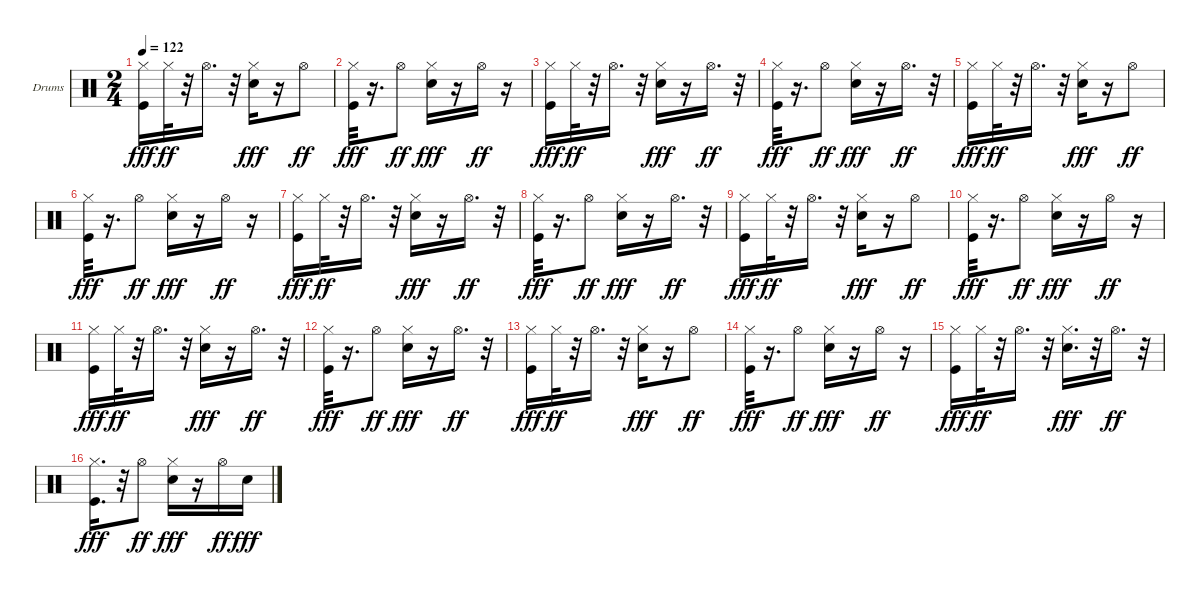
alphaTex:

\bracketExtendMode groupsimilarinstruments
\firstSystemTrackNameOrientation horizontal
\otherSystemsTrackNameOrientation horizontal
\track ("Ударные" "Drums") {instrument percussion}
\staff {score}
\articulation defaults
\ts (2 4)
\tempo 122
\clef neutral
\ks c
("Kick (hit)" "Hi-Hat (closed)").16{dy fff} "Hi-Hat (closed)".32{dy ff} r.32 "Hi-Hat (open)".16{d} r.32 ("Snare (hit) 2" "Hi-Hat (closed)").16{dy fff} r.16 "Hi-Hat (open)".8{dy ff} |
("Kick (hit)" "Hi-Hat (closed)").32{dy fff} r.16{d} "Hi-Hat (open)".8{dy ff} ("Snare (hit) 2" "Hi-Hat (closed)").16{dy fff} r.16 "Hi-Hat (open)".16{dy ff} r.16 |
("Kick (hit)" "Hi-Hat (closed)").16{dy fff} "Hi-Hat (closed)".32{dy ff} r.32 "Hi-Hat (open)".16{d} r.32 ("Snare (hit) 2" "Hi-Hat (closed)").16{dy fff} r.16 "Hi-Hat (open)".16{d dy ff} r.32 |
("Kick (hit)" "Hi-Hat (closed)").32{dy fff} r.16{d} "Hi-Hat (open)".8{dy ff} ("Snare (hit) 2" "Hi-Hat (closed)").16{dy fff} r.16 "Hi-Hat (open)".16{d dy ff} r.32 |
("Kick (hit)" "Hi-Hat (closed)").16{dy fff} "Hi-Hat (closed)".32{dy ff} r.32 "Hi-Hat (open)".16{d} r.32 ("Snare (hit) 2" "Hi-Hat (closed)").16{dy fff} r.16 "Hi-Hat (open)".8{dy ff} |
("Kick (hit)" "Hi-Hat (closed)").32{dy fff} r.16{d} "Hi-Hat (open)".8{dy ff} ("Snare (hit) 2" "Hi-Hat (closed)").16{dy fff} r.16 "Hi-Hat (open)".16{dy ff} r.16 |
("Kick (hit)" "Hi-Hat (closed)").16{dy fff} "Hi-Hat (closed)".32{dy ff} r.32 "Hi-Hat (open)".16{d} r.32 ("Snare (hit) 2" "Hi-Hat (closed)").16{dy fff} r.16 "Hi-Hat (open)".16{d dy ff} r.32 |
("Kick (hit)" "Hi-Hat (closed)").32{dy fff} r.16{d} "Hi-Hat (open)".8{dy ff} ("Snare (hit) 2" "Hi-Hat (closed)").16{dy fff} r.16 "Hi-Hat (open)".16{d dy ff} r.32 |
("Kick (hit)" "Hi-Hat (closed)").16{dy fff} "Hi-Hat (closed)".32{dy ff} r.32 "Hi-Hat (open)".16{d} r.32 ("Snare (hit) 2" "Hi-Hat (closed)").16{dy fff} r.16 "Hi-Hat (open)".8{dy ff} |
("Kick (hit)" "Hi-Hat (closed)").32{dy fff} r.16{d} "Hi-Hat (open)".8{dy ff} ("Snare (hit) 2" "Hi-Hat (closed)").16{dy fff} r.16 "Hi-Hat (open)".16{dy ff} r.16 |
("Kick (hit)" "Hi-Hat (closed)").16{dy fff} "Hi-Hat (closed)".32{dy ff} r.32 "Hi-Hat (open)".16{d} r.32 ("Snare (hit) 2" "Hi-Hat (closed)").16{dy fff} r.16 "Hi-Hat (open)".16{d dy ff} r.32 |
("Kick (hit)" "Hi-Hat (closed)").32{dy fff} r.16{d} "Hi-Hat (open)".8{dy ff} ("Snare (hit) 2" "Hi-Hat (closed)").16{dy fff} r.16 "Hi-Hat (open)".16{d dy ff} r.32 |
("Kick (hit)" "Hi-Hat (closed)").16{dy fff} "Hi-Hat (closed)".32{dy ff} r.32 "Hi-Hat (open)".16{d} r.32 ("Snare (hit) 2" "Hi-Hat (closed)").16{dy fff} r.16 "Hi-Hat (open)".8{dy ff} |
("Kick (hit)" "Hi-Hat (closed)").32{dy fff} r.16{d} "Hi-Hat (open)".8{dy ff} ("Snare (hit) 2" "Hi-Hat (closed)").16{dy fff} r.16 "Hi-Hat (open)".16{dy ff} r.16 |
("Kick (hit)" "Hi-Hat (closed)").16{dy fff} "Hi-Hat (closed)".32{dy ff} r.32 "Hi-Hat (open)".16{d} r.32 ("Snare (hit) 2" "Hi-Hat (closed)").16{d dy fff} r.32 "Hi-Hat (open)".16{d dy ff} r.32 |
("Kick (hit)" "Hi-Hat (closed)").16{d dy fff} r.32 "Hi-Hat (open)".8{dy ff} ("Snare (hit) 2" "Hi-Hat (closed)").16{dy fff} r.16 "Hi-Hat (open)".16{dy ff} "Snare (hit) 2".16{dy fff}
